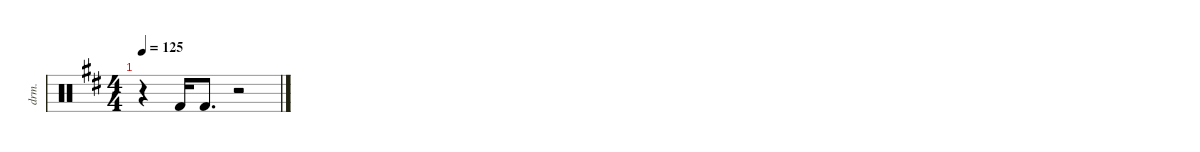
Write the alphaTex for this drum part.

\defaultSystemsLayout 4
\hideDynamics
\bracketExtendMode nobrackets
\otherSystemsTrackNameOrientation horizontal
\track ("Drumkit" "drm.") {defaultSystemsLayout 4 instrument percussion}
\staff {score}
\articulation defaults
\ts (4 4)
\tempo 125
\clef neutral
\ks d
r.4{dy mf beam Down} "Kick (hit) 2"{acc forcenatural}.16{beam Up} "Kick (hit) 2"{acc forcenatural}.8{d beam Up} r.2{beam Up}
